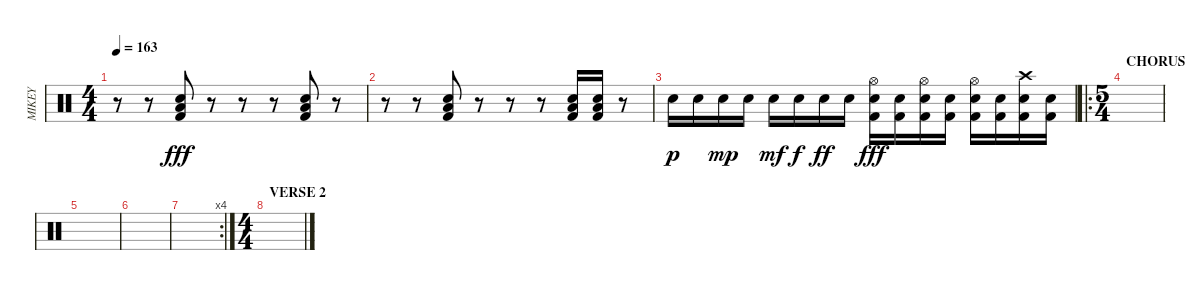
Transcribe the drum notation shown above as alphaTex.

\track ("MIKEY" "MIKEY") {instrument percussion}
\staff {score}
\articulation defaults
\ts (4 4)
\tempo 163
\clef neutral
\ks c
r.8{dy fff} r.8 ("Kick (hit) 2" "Low Floor Tom (hit)" "Electric Snare (hit)").8 r.8 r.8 r.8 ("Kick (hit) 2" "Low Floor Tom (hit)" "Electric Snare (hit)").8 r.8 |
r.8 r.8 ("Kick (hit) 2" "Low Floor Tom (hit)" "Electric Snare (hit)").8 r.8 r.8 r.8 ("Kick (hit) 2" "Low Floor Tom (hit)" "Electric Snare (hit)").16 ("Kick (hit) 2" "Low Floor Tom (hit)" "Electric Snare (hit)").16 r.8 |
"Electric Snare (hit)".16{dy p} "Electric Snare (hit)".16 "Electric Snare (hit)".16{dy mp} "Electric Snare (hit)".16 "Electric Snare (hit)".16{dy mf} "Electric Snare (hit)".16{dy f} "Electric Snare (hit)".16{dy ff} "Electric Snare (hit)".16 ("Hi-Hat (open)" "Kick (hit) 2" "Electric Snare (hit)").16{dy fff} ("Kick (hit) 2" "Electric Snare (hit)").16 ("Hi-Hat (open)" "Kick (hit) 2" "Electric Snare (hit)").16 ("Kick (hit) 2" "Electric Snare (hit)").16 ("Hi-Hat (open)" "Kick (hit) 2" "Electric Snare (hit)").16 ("Kick (hit) 2" "Electric Snare (hit)").16 ("Crash high (hit)" "Kick (hit) 2" "Electric Snare (hit)").16 ("Kick (hit) 2" "Electric Snare (hit)").16 |
\ro
\ts (5 4)
\section ("" "CHORUS")
|
|
|
\rc 4
|
\ts (4 4)
\section ("" "VERSE 2")
